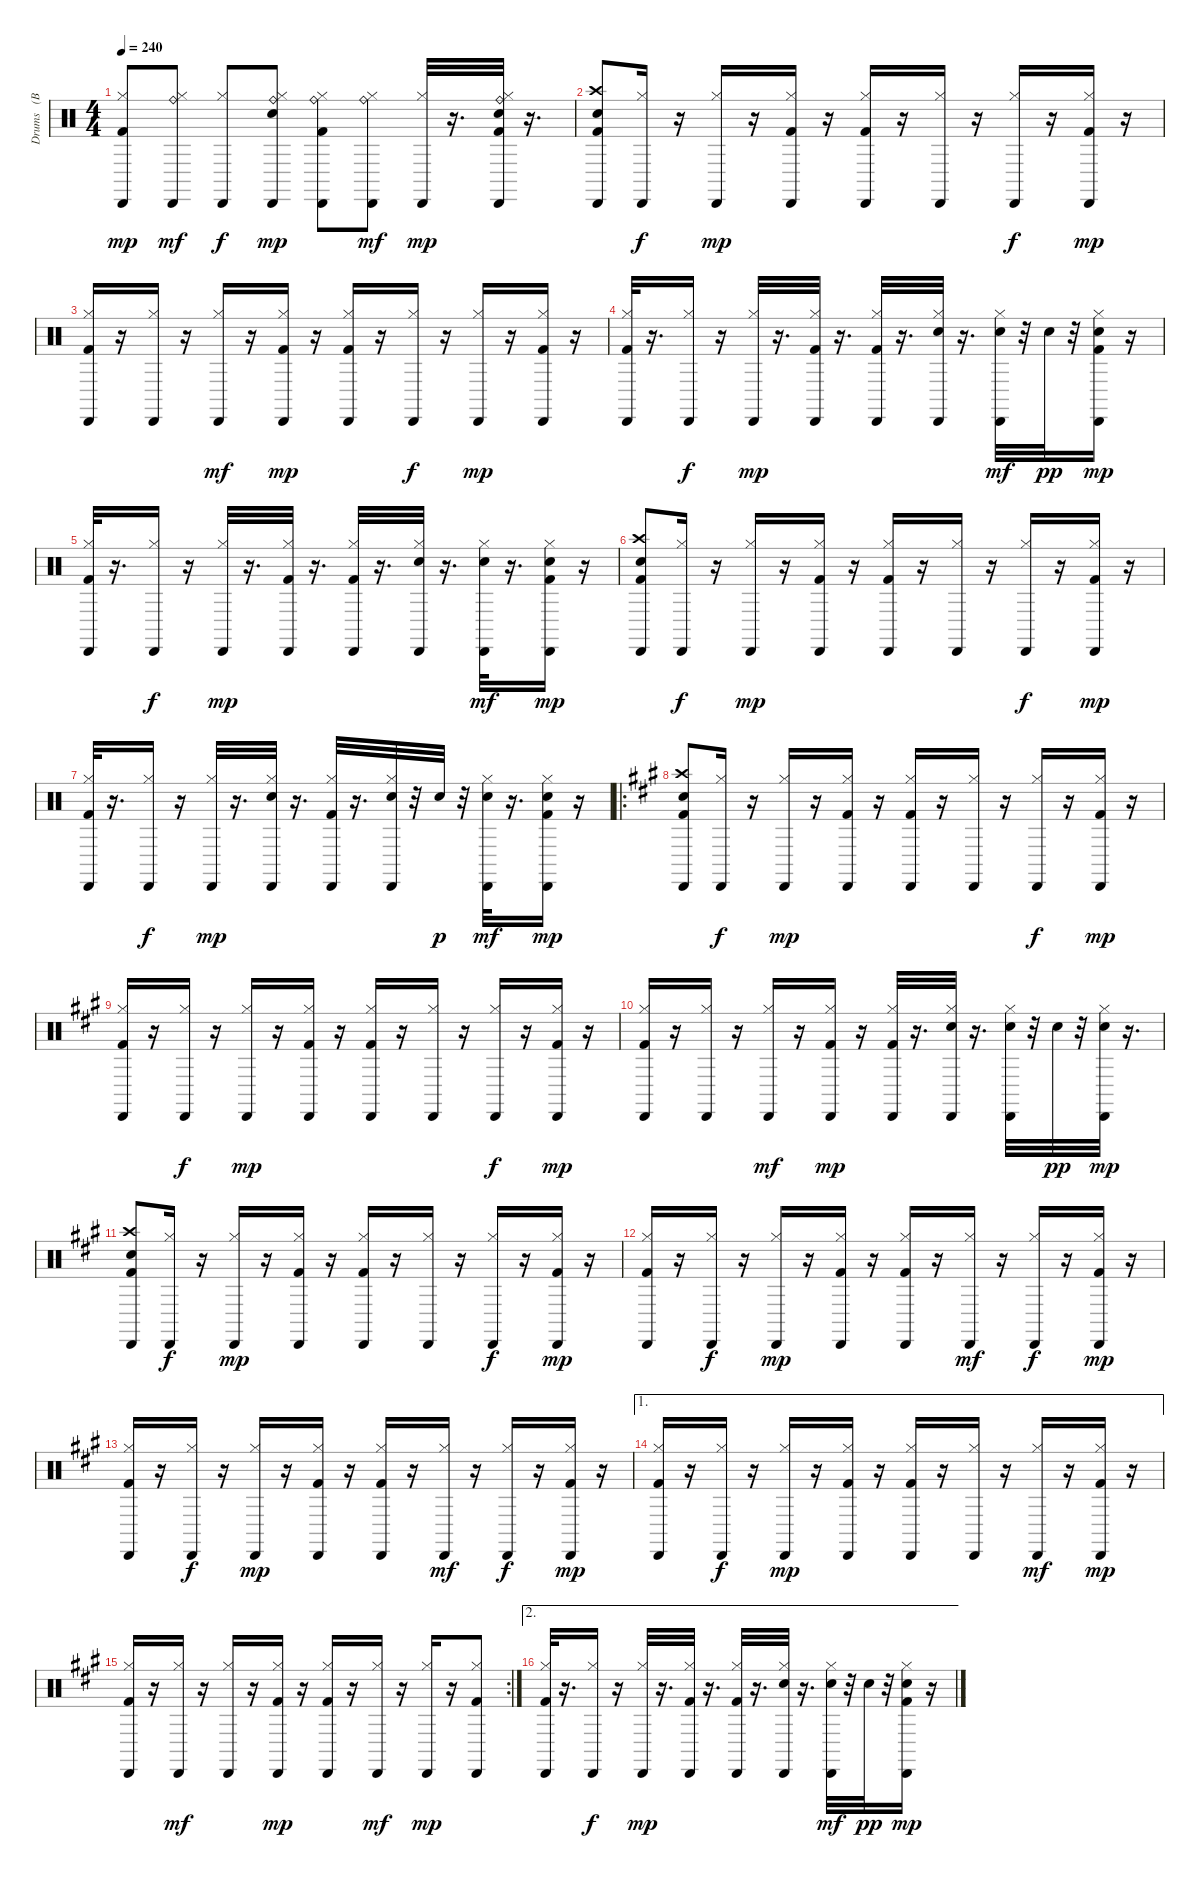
\track ("Drums   (BB)" "Drums   (B") {instrument percussion}
\staff {score}
\articulation defaults
\ts (4 4)
\tempo 240
\clef neutral
\ks c
("Kick (hit) 2" "Hi-Hat (closed)" "Cabasa (hit)").8{dy mp} ("Ride (bell)" "Hi-Hat (closed)" "Cabasa (hit)").8{dy mf} ("Hi-Hat (closed)" "Cabasa (hit)").8{dy f} ("Electric Snare (hit)" "Ride (bell)" "Hi-Hat (closed)" "Cabasa (hit)").8{dy mp} ("Ride (bell)" "Kick (hit) 2" "Hi-Hat (closed)" "Cabasa (hit)").8 ("Ride (bell)" "Hi-Hat (closed)" "Cabasa (hit)").8{dy mf} ("Hi-Hat (closed)" "Cabasa (hit)").32{dy mp} r.16{d} ("Electric Snare (hit)" "Ride (bell)" "Kick (hit) 2" "Hi-Hat (closed)" "Cabasa (hit)").32 r.16{d} |
("Electric Snare (hit)" "Crash high (hit)" "Kick (hit) 2" "Cabasa (hit)").8 ("Hi-Hat (closed)" "Cabasa (hit)").16{dy f} r.16 ("Hi-Hat (closed)" "Cabasa (hit)").16{dy mp} r.16 ("Kick (hit) 2" "Hi-Hat (closed)" "Cabasa (hit)").16 r.16 ("Kick (hit) 2" "Hi-Hat (closed)" "Cabasa (hit)").16 r.16 ("Hi-Hat (closed)" "Cabasa (hit)").16 r.16 ("Hi-Hat (closed)" "Cabasa (hit)").16{dy f} r.16 ("Kick (hit) 2" "Hi-Hat (closed)" "Cabasa (hit)").16{dy mp} r.16 |
("Kick (hit) 2" "Hi-Hat (closed)" "Cabasa (hit)").16 r.16 ("Hi-Hat (closed)" "Cabasa (hit)").16 r.16 ("Hi-Hat (closed)" "Cabasa (hit)").16{dy mf} r.16 ("Kick (hit) 2" "Hi-Hat (closed)" "Cabasa (hit)").16{dy mp} r.16 ("Kick (hit) 2" "Hi-Hat (closed)" "Cabasa (hit)").16 r.16 ("Hi-Hat (closed)" "Cabasa (hit)").16{dy f} r.16 ("Hi-Hat (closed)" "Cabasa (hit)").16{dy mp} r.16 ("Kick (hit) 2" "Hi-Hat (closed)" "Cabasa (hit)").16 r.16 |
("Kick (hit) 2" "Hi-Hat (closed)" "Cabasa (hit)").32 r.16{d} ("Hi-Hat (closed)" "Cabasa (hit)").16{dy f} r.16 ("Hi-Hat (closed)" "Cabasa (hit)").32{dy mp} r.16{d} ("Kick (hit) 2" "Hi-Hat (closed)" "Cabasa (hit)").32 r.16{d} ("Kick (hit) 2" "Hi-Hat (closed)" "Cabasa (hit)").32 r.16{d} ("Electric Snare (hit)" "Hi-Hat (closed)" "Cabasa (hit)").32 r.16{d} ("Electric Snare (hit)" "Hi-Hat (closed)" "Cabasa (hit)").32{dy mf} r.32 "Snare (hit) 2".32{dy pp} r.32 ("Electric Snare (hit)" "Kick (hit) 2" "Hi-Hat (closed)" "Cabasa (hit)").16{dy mp} r.16 |
("Kick (hit) 2" "Hi-Hat (closed)" "Cabasa (hit)").32 r.16{d} ("Hi-Hat (closed)" "Cabasa (hit)").16{dy f} r.16 ("Hi-Hat (closed)" "Cabasa (hit)").32{dy mp} r.16{d} ("Kick (hit) 2" "Hi-Hat (closed)" "Cabasa (hit)").32 r.16{d} ("Kick (hit) 2" "Hi-Hat (closed)" "Cabasa (hit)").32 r.16{d} ("Electric Snare (hit)" "Hi-Hat (closed)" "Cabasa (hit)").32 r.16{d} ("Snare (hit) 2" "Hi-Hat (closed)" "Cabasa (hit)").32{dy mf} r.16{d} ("Electric Snare (hit)" "Kick (hit) 2" "Hi-Hat (closed)" "Cabasa (hit)").16{dy mp} r.16 |
("Electric Snare (hit)" "Crash high (hit)" "Kick (hit) 2" "Cabasa (hit)").8 ("Hi-Hat (closed)" "Cabasa (hit)").16{dy f} r.16 ("Hi-Hat (closed)" "Cabasa (hit)").16{dy mp} r.16 ("Kick (hit) 2" "Hi-Hat (closed)" "Cabasa (hit)").16 r.16 ("Kick (hit) 2" "Hi-Hat (closed)" "Cabasa (hit)").16 r.16 ("Hi-Hat (closed)" "Cabasa (hit)").16 r.16 ("Hi-Hat (closed)" "Cabasa (hit)").16{dy f} r.16 ("Kick (hit) 2" "Hi-Hat (closed)" "Cabasa (hit)").16{dy mp} r.16 |
("Kick (hit) 2" "Hi-Hat (closed)" "Cabasa (hit)").32 r.16{d} ("Hi-Hat (closed)" "Cabasa (hit)").16{dy f} r.16 ("Hi-Hat (closed)" "Cabasa (hit)").32{dy mp} r.16{d} ("Electric Snare (hit)" "Hi-Hat (closed)" "Cabasa (hit)").32 r.16{d} ("Kick (hit) 2" "Hi-Hat (closed)" "Cabasa (hit)").32 r.16{d} ("Electric Snare (hit)" "Hi-Hat (closed)" "Cabasa (hit)").32 r.32 "Snare (hit) 2".32{dy p} r.32 ("Electric Snare (hit)" "Hi-Hat (closed)" "Cabasa (hit)").32{dy mf} r.16{d} ("Electric Snare (hit)" "Kick (hit) 2" "Hi-Hat (closed)" "Cabasa (hit)").16{dy mp} r.16 |
\ro
\ks a
("Electric Snare (hit)" "Crash high (hit)" "Kick (hit) 2" "Cabasa (hit)").8 ("Hi-Hat (closed)" "Cabasa (hit)").16{dy f} r.16 ("Hi-Hat (closed)" "Cabasa (hit)").16{dy mp} r.16 ("Kick (hit) 2" "Hi-Hat (closed)" "Cabasa (hit)").16 r.16 ("Kick (hit) 2" "Hi-Hat (closed)" "Cabasa (hit)").16 r.16 ("Hi-Hat (closed)" "Cabasa (hit)").16 r.16 ("Hi-Hat (closed)" "Cabasa (hit)").16{dy f} r.16 ("Kick (hit) 2" "Hi-Hat (closed)" "Cabasa (hit)").16{dy mp} r.16 |
("Kick (hit) 2" "Hi-Hat (closed)" "Cabasa (hit)").16 r.16 ("Hi-Hat (closed)" "Cabasa (hit)").16{dy f} r.16 ("Hi-Hat (closed)" "Cabasa (hit)").16{dy mp} r.16 ("Kick (hit) 2" "Hi-Hat (closed)" "Cabasa (hit)").16 r.16 ("Kick (hit) 2" "Hi-Hat (closed)" "Cabasa (hit)").16 r.16 ("Hi-Hat (closed)" "Cabasa (hit)").16 r.16 ("Hi-Hat (closed)" "Cabasa (hit)").16{dy f} r.16 ("Kick (hit) 2" "Hi-Hat (closed)" "Cabasa (hit)").16{dy mp} r.16 |
("Kick (hit) 2" "Hi-Hat (closed)" "Cabasa (hit)").16 r.16 ("Hi-Hat (closed)" "Cabasa (hit)").16 r.16 ("Hi-Hat (closed)" "Cabasa (hit)").16{dy mf} r.16 ("Kick (hit) 2" "Hi-Hat (closed)" "Cabasa (hit)").16{dy mp} r.16 ("Kick (hit) 2" "Hi-Hat (closed)" "Cabasa (hit)").32 r.16{d} ("Snare (hit) 2" "Hi-Hat (closed)" "Cabasa (hit)").32 r.16{d} ("Electric Snare (hit)" "Hi-Hat (closed)" "Cabasa (hit)").32 r.32 "Snare (hit) 2".32{dy pp} r.32 ("Electric Snare (hit)" "Hi-Hat (closed)" "Cabasa (hit)").32{dy mp} r.16{d} |
("Electric Snare (hit)" "Crash high (hit)" "Kick (hit) 2" "Cabasa (hit)").8 ("Hi-Hat (closed)" "Cabasa (hit)").16{dy f} r.16 ("Hi-Hat (closed)" "Cabasa (hit)").16{dy mp} r.16 ("Kick (hit) 2" "Hi-Hat (closed)" "Cabasa (hit)").16 r.16 ("Kick (hit) 2" "Hi-Hat (closed)" "Cabasa (hit)").16 r.16 ("Hi-Hat (closed)" "Cabasa (hit)").16 r.16 ("Hi-Hat (closed)" "Cabasa (hit)").16{dy f} r.16 ("Kick (hit) 2" "Hi-Hat (closed)" "Cabasa (hit)").16{dy mp} r.16 |
("Kick (hit) 2" "Hi-Hat (closed)" "Cabasa (hit)").16 r.16 ("Hi-Hat (closed)" "Cabasa (hit)").16{dy f} r.16 ("Hi-Hat (closed)" "Cabasa (hit)").16{dy mp} r.16 ("Kick (hit) 2" "Hi-Hat (closed)" "Cabasa (hit)").16 r.16 ("Kick (hit) 2" "Hi-Hat (closed)" "Cabasa (hit)").16 r.16 ("Hi-Hat (closed)" "Cabasa (hit)").16{dy mf} r.16 ("Hi-Hat (closed)" "Cabasa (hit)").16{dy f} r.16 ("Kick (hit) 2" "Hi-Hat (closed)" "Cabasa (hit)").16{dy mp} r.16 |
("Kick (hit) 2" "Hi-Hat (closed)" "Cabasa (hit)").16 r.16 ("Hi-Hat (closed)" "Cabasa (hit)").16{dy f} r.16 ("Hi-Hat (closed)" "Cabasa (hit)").16{dy mp} r.16 ("Kick (hit) 2" "Hi-Hat (closed)" "Cabasa (hit)").16 r.16 ("Kick (hit) 2" "Hi-Hat (closed)" "Cabasa (hit)").16 r.16 ("Hi-Hat (closed)" "Cabasa (hit)").16{dy mf} r.16 ("Hi-Hat (closed)" "Cabasa (hit)").16{dy f} r.16 ("Kick (hit) 2" "Hi-Hat (closed)" "Cabasa (hit)").16{dy mp} r.16 |
\ae 1
("Kick (hit) 2" "Hi-Hat (closed)" "Cabasa (hit)").16 r.16 ("Hi-Hat (closed)" "Cabasa (hit)").16{dy f} r.16 ("Hi-Hat (closed)" "Cabasa (hit)").16{dy mp} r.16 ("Kick (hit) 2" "Hi-Hat (closed)" "Cabasa (hit)").16 r.16 ("Kick (hit) 2" "Hi-Hat (closed)" "Cabasa (hit)").16 r.16 ("Hi-Hat (closed)" "Cabasa (hit)").16 r.16 ("Hi-Hat (closed)" "Cabasa (hit)").16{dy mf} r.16 ("Kick (hit) 2" "Hi-Hat (closed)" "Cabasa (hit)").16{dy mp} r.16 |
\rc 2
("Kick (hit) 2" "Hi-Hat (closed)" "Cabasa (hit)").16 r.16 ("Hi-Hat (closed)" "Cabasa (hit)").16{dy mf} r.16 ("Hi-Hat (closed)" "Cabasa (hit)").16 r.16 ("Kick (hit) 2" "Hi-Hat (closed)" "Cabasa (hit)").16{dy mp} r.16 ("Kick (hit) 2" "Hi-Hat (closed)" "Cabasa (hit)").16 r.16 ("Hi-Hat (closed)" "Cabasa (hit)").16{dy mf} r.16 ("Hi-Hat (closed)" "Cabasa (hit)").16{dy mp} r.16 ("Kick (hit) 2" "Hi-Hat (closed)" "Cabasa (hit)").8 |
\ae 2
("Kick (hit) 2" "Hi-Hat (closed)" "Cabasa (hit)").32 r.16{d} ("Hi-Hat (closed)" "Cabasa (hit)").16{dy f} r.16 ("Hi-Hat (closed)" "Cabasa (hit)").32{dy mp} r.16{d} ("Kick (hit) 2" "Hi-Hat (closed)" "Cabasa (hit)").32 r.16{d} ("Kick (hit) 2" "Hi-Hat (closed)" "Cabasa (hit)").32 r.16{d} ("Electric Snare (hit)" "Hi-Hat (closed)" "Cabasa (hit)").32 r.16{d} ("Electric Snare (hit)" "Hi-Hat (closed)" "Cabasa (hit)").32{dy mf} r.32 "Snare (hit) 2".32{dy pp} r.32 ("Electric Snare (hit)" "Kick (hit) 2" "Hi-Hat (closed)" "Cabasa (hit)").16{dy mp} r.16
